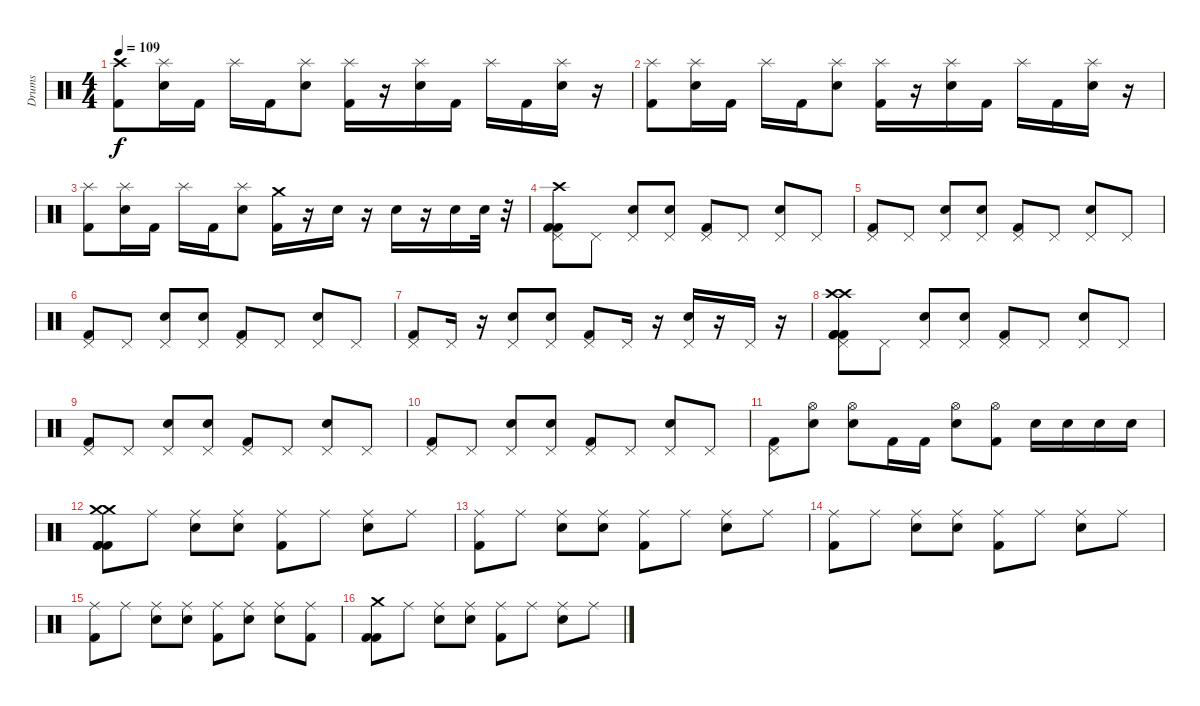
\track ("Drums" "Drums") {instrument percussion}
\staff {score}
\articulation defaults
\ts (4 4)
\tempo 109
\clef neutral
\ks c
("Crash high (hit)" "Kick (hit) 2").8{dy f} ("Splash (hit)" "Electric Snare (hit)").16 "Kick (hit) 2".16 "Splash (hit)".16 "Kick (hit) 2".16 ("Splash (hit)" "Electric Snare (hit)").8 ("Splash (hit)" "Kick (hit) 2").16 r.16 ("Splash (hit)" "Electric Snare (hit)").16 "Kick (hit) 2".16 "Splash (hit)".16 "Kick (hit) 2".16 ("Splash (hit)" "Electric Snare (hit)").16 r.16 |
("Splash (hit)" "Kick (hit) 2").8 ("Splash (hit)" "Electric Snare (hit)").16 "Kick (hit) 2".16 "Splash (hit)".16 "Kick (hit) 2".16 ("Splash (hit)" "Electric Snare (hit)").8 ("Splash (hit)" "Kick (hit) 2").16 r.16 ("Splash (hit)" "Electric Snare (hit)").16 "Kick (hit) 2".16 "Splash (hit)".16 "Kick (hit) 2".16 ("Splash (hit)" "Electric Snare (hit)").16 r.16 |
("Splash (hit)" "Kick (hit) 2").8 ("Splash (hit)" "Electric Snare (hit)").16 "Kick (hit) 2".16 "Splash (hit)".16 "Kick (hit) 2".16 ("Splash (hit)" "Electric Snare (hit)").8 ("Crash medium (hit)" "Kick (hit) 2").16 r.16 "Electric Snare (hit)".16 r.16 "Electric Snare (hit)".16 r.16 "Electric Snare (hit)".16 "Electric Snare (hit)".32 r.32 |
("Pedal Hi-Hat (hit)" "Kick (hit) 2" "Crash high (hit)" "Kick (hit) 2").8 "Pedal Hi-Hat (hit)".8 ("Pedal Hi-Hat (hit)" "Electric Snare (hit)").8 ("Pedal Hi-Hat (hit)" "Electric Snare (hit)").8 ("Pedal Hi-Hat (hit)" "Kick (hit) 2").8 "Pedal Hi-Hat (hit)".8 ("Pedal Hi-Hat (hit)" "Electric Snare (hit)").8 "Pedal Hi-Hat (hit)".8 |
("Pedal Hi-Hat (hit)" "Kick (hit) 2").8 "Pedal Hi-Hat (hit)".8 ("Pedal Hi-Hat (hit)" "Electric Snare (hit)").8 ("Pedal Hi-Hat (hit)" "Electric Snare (hit)").8 ("Pedal Hi-Hat (hit)" "Kick (hit) 2").8 "Pedal Hi-Hat (hit)".8 ("Pedal Hi-Hat (hit)" "Electric Snare (hit)").8 "Pedal Hi-Hat (hit)".8 |
("Pedal Hi-Hat (hit)" "Kick (hit) 2").8 "Pedal Hi-Hat (hit)".8 ("Pedal Hi-Hat (hit)" "Electric Snare (hit)").8 ("Pedal Hi-Hat (hit)" "Electric Snare (hit)").8 ("Pedal Hi-Hat (hit)" "Kick (hit) 2").8 "Pedal Hi-Hat (hit)".8 ("Electric Snare (hit)" "Pedal Hi-Hat (hit)").8 "Pedal Hi-Hat (hit)".8 |
("Pedal Hi-Hat (hit)" "Kick (hit) 2").8 "Pedal Hi-Hat (hit)".16 r.16 ("Pedal Hi-Hat (hit)" "Electric Snare (hit)").8 ("Pedal Hi-Hat (hit)" "Electric Snare (hit)").8 ("Pedal Hi-Hat (hit)" "Kick (hit) 2").8 "Pedal Hi-Hat (hit)".16 r.16 ("Pedal Hi-Hat (hit)" "Electric Snare (hit)").16 r.16 "Pedal Hi-Hat (hit)".16 r.16 |
("Crash high (hit)" "Kick (hit) 2" "Crash high (hit)" "Kick (hit) 2" "Pedal Hi-Hat (hit)" "Kick (hit) 2").8 "Pedal Hi-Hat (hit)".8 ("Pedal Hi-Hat (hit)" "Electric Snare (hit)").8 ("Pedal Hi-Hat (hit)" "Electric Snare (hit)").8 ("Pedal Hi-Hat (hit)" "Kick (hit) 2").8 "Pedal Hi-Hat (hit)".8 ("Pedal Hi-Hat (hit)" "Electric Snare (hit)").8 "Pedal Hi-Hat (hit)".8 |
("Pedal Hi-Hat (hit)" "Kick (hit) 2").8 "Pedal Hi-Hat (hit)".8 ("Pedal Hi-Hat (hit)" "Electric Snare (hit)").8 ("Pedal Hi-Hat (hit)" "Electric Snare (hit)").8 ("Pedal Hi-Hat (hit)" "Kick (hit) 2").8 "Pedal Hi-Hat (hit)".8 ("Pedal Hi-Hat (hit)" "Electric Snare (hit)").8 "Pedal Hi-Hat (hit)".8 |
("Pedal Hi-Hat (hit)" "Kick (hit) 2").8 "Pedal Hi-Hat (hit)".8 ("Pedal Hi-Hat (hit)" "Electric Snare (hit)").8 ("Pedal Hi-Hat (hit)" "Electric Snare (hit)").8 ("Pedal Hi-Hat (hit)" "Kick (hit) 2").8 "Pedal Hi-Hat (hit)".8 ("Electric Snare (hit)" "Pedal Hi-Hat (hit)").8 "Pedal Hi-Hat (hit)".8 |
("Pedal Hi-Hat (hit)" "Kick (hit) 2").8 ("Hi-Hat (open)" "Electric Snare (hit)").8 ("Hi-Hat (open)" "Electric Snare (hit)").8 "Kick (hit) 2".16 "Kick (hit) 2".16 ("Hi-Hat (open)" "Electric Snare (hit)").8 ("Hi-Hat (open)" "Kick (hit) 2").8 "Electric Snare (hit)".16 "Electric Snare (hit)".16 "Electric Snare (hit)".16 "Electric Snare (hit)".16 |
("Crash medium (hit)" "Kick (hit) 2" "Crash medium (hit)" "Kick (hit) 2" "Kick (hit) 2").8 "Ride (middle)".8 ("Ride (middle)" "Electric Snare (hit)").8 ("Ride (middle)" "Electric Snare (hit)").8 ("Ride (middle)" "Kick (hit) 2").8 "Ride (middle)".8 ("Ride (middle)" "Electric Snare (hit)").8 "Ride (middle)".8 |
("Ride (middle)" "Kick (hit) 2").8 "Ride (middle)".8 ("Ride (middle)" "Electric Snare (hit)").8 ("Ride (middle)" "Electric Snare (hit)").8 ("Ride (middle)" "Kick (hit) 2").8 "Ride (middle)".8 ("Ride (middle)" "Electric Snare (hit)").8 "Ride (middle)".8 |
("Ride (middle)" "Kick (hit) 2").8 "Ride (middle)".8 ("Ride (middle)" "Electric Snare (hit)").8 ("Ride (middle)" "Electric Snare (hit)").8 ("Ride (middle)" "Kick (hit) 2").8 "Ride (middle)".8 ("Electric Snare (hit)" "Ride (middle)").8 "Ride (middle)".8 |
("Ride (middle)" "Kick (hit) 2").8 "Ride (middle)".8 ("Electric Snare (hit)" "Ride (middle)").8 ("Electric Snare (hit)" "Ride (middle)").8 ("Kick (hit) 2" "Ride (middle)").8 ("Electric Snare (hit)" "Ride (middle)").8 ("Electric Snare (hit)" "Ride (middle)").8 ("Kick (hit) 2" "Ride (middle)").8 |
("Crash medium (hit)" "Kick (hit) 2" "Kick (hit) 2").8 "Ride (middle)".8 ("Ride (middle)" "Electric Snare (hit)").8 ("Ride (middle)" "Electric Snare (hit)").8 ("Ride (middle)" "Kick (hit) 2").8 "Ride (middle)".8 ("Ride (middle)" "Electric Snare (hit)").8 "Ride (middle)".8
